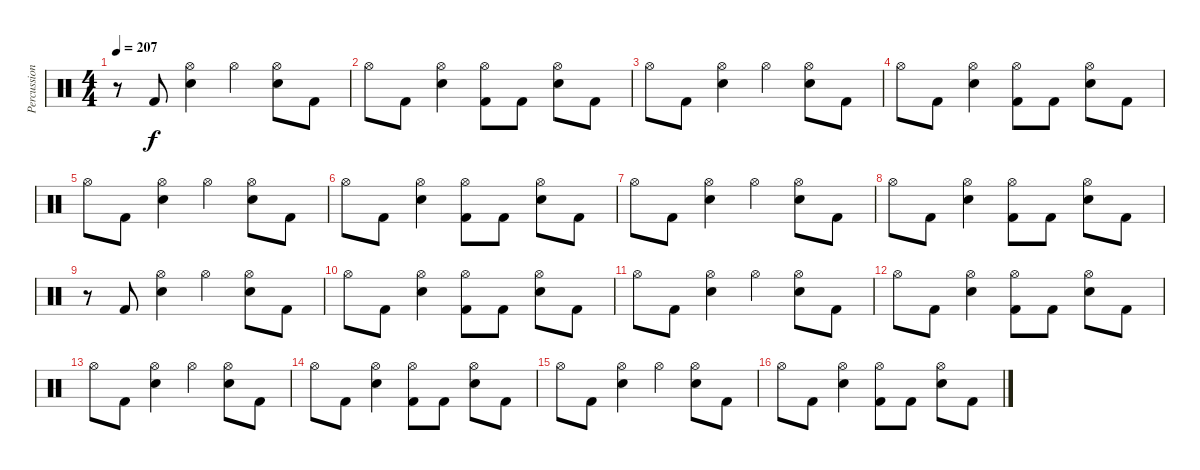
\track ("Percussion" "Percussion") {instrument percussion}
\staff {score}
\articulation defaults
\ts (4 4)
\tempo 207
\clef neutral
\ks c
r.8{dy f} "Kick (hit) 2".8 ("Hi-Hat (open)" "Snare (hit) 2").4 "Hi-Hat (open)".4 ("Hi-Hat (open)" "Snare (hit) 2").8 "Kick (hit) 2".8 |
"Hi-Hat (open)".8 "Kick (hit) 2".8 ("Hi-Hat (open)" "Snare (hit) 2").4 ("Hi-Hat (open)" "Kick (hit) 2").8 "Kick (hit) 2".8 ("Hi-Hat (open)" "Snare (hit) 2").8 "Kick (hit) 2".8 |
"Hi-Hat (open)".8 "Kick (hit) 2".8 ("Hi-Hat (open)" "Snare (hit) 2").4 "Hi-Hat (open)".4 ("Hi-Hat (open)" "Snare (hit) 2").8 "Kick (hit) 2".8 |
"Hi-Hat (open)".8 "Kick (hit) 2".8 ("Hi-Hat (open)" "Snare (hit) 2").4 ("Hi-Hat (open)" "Kick (hit) 2").8 "Kick (hit) 2".8 ("Hi-Hat (open)" "Snare (hit) 2").8 "Kick (hit) 2".8 |
"Hi-Hat (open)".8 "Kick (hit) 2".8 ("Hi-Hat (open)" "Snare (hit) 2").4 "Hi-Hat (open)".4 ("Hi-Hat (open)" "Snare (hit) 2").8 "Kick (hit) 2".8 |
"Hi-Hat (open)".8 "Kick (hit) 2".8 ("Hi-Hat (open)" "Snare (hit) 2").4 ("Hi-Hat (open)" "Kick (hit) 2").8 "Kick (hit) 2".8 ("Hi-Hat (open)" "Snare (hit) 2").8 "Kick (hit) 2".8 |
"Hi-Hat (open)".8 "Kick (hit) 2".8 ("Hi-Hat (open)" "Snare (hit) 2").4 "Hi-Hat (open)".4 ("Hi-Hat (open)" "Snare (hit) 2").8 "Kick (hit) 2".8 |
"Hi-Hat (open)".8 "Kick (hit) 2".8 ("Hi-Hat (open)" "Snare (hit) 2").4 ("Hi-Hat (open)" "Kick (hit) 2").8 "Kick (hit) 2".8 ("Hi-Hat (open)" "Snare (hit) 2").8 "Kick (hit) 2".8 |
r.8 "Kick (hit) 2".8 ("Hi-Hat (open)" "Snare (hit) 2").4 "Hi-Hat (open)".4 ("Hi-Hat (open)" "Snare (hit) 2").8 "Kick (hit) 2".8 |
"Hi-Hat (open)".8 "Kick (hit) 2".8 ("Hi-Hat (open)" "Snare (hit) 2").4 ("Hi-Hat (open)" "Kick (hit) 2").8 "Kick (hit) 2".8 ("Hi-Hat (open)" "Snare (hit) 2").8 "Kick (hit) 2".8 |
"Hi-Hat (open)".8 "Kick (hit) 2".8 ("Hi-Hat (open)" "Snare (hit) 2").4 "Hi-Hat (open)".4 ("Hi-Hat (open)" "Snare (hit) 2").8 "Kick (hit) 2".8 |
"Hi-Hat (open)".8 "Kick (hit) 2".8 ("Hi-Hat (open)" "Snare (hit) 2").4 ("Hi-Hat (open)" "Kick (hit) 2").8 "Kick (hit) 2".8 ("Hi-Hat (open)" "Snare (hit) 2").8 "Kick (hit) 2".8 |
"Hi-Hat (open)".8 "Kick (hit) 2".8 ("Hi-Hat (open)" "Snare (hit) 2").4 "Hi-Hat (open)".4 ("Hi-Hat (open)" "Snare (hit) 2").8 "Kick (hit) 2".8 |
"Hi-Hat (open)".8 "Kick (hit) 2".8 ("Hi-Hat (open)" "Snare (hit) 2").4 ("Hi-Hat (open)" "Kick (hit) 2").8 "Kick (hit) 2".8 ("Hi-Hat (open)" "Snare (hit) 2").8 "Kick (hit) 2".8 |
"Hi-Hat (open)".8 "Kick (hit) 2".8 ("Hi-Hat (open)" "Snare (hit) 2").4 "Hi-Hat (open)".4 ("Hi-Hat (open)" "Snare (hit) 2").8 "Kick (hit) 2".8 |
"Hi-Hat (open)".8 "Kick (hit) 2".8 ("Hi-Hat (open)" "Snare (hit) 2").4 ("Hi-Hat (open)" "Kick (hit) 2").8 "Kick (hit) 2".8 ("Hi-Hat (open)" "Snare (hit) 2").8 "Kick (hit) 2".8
